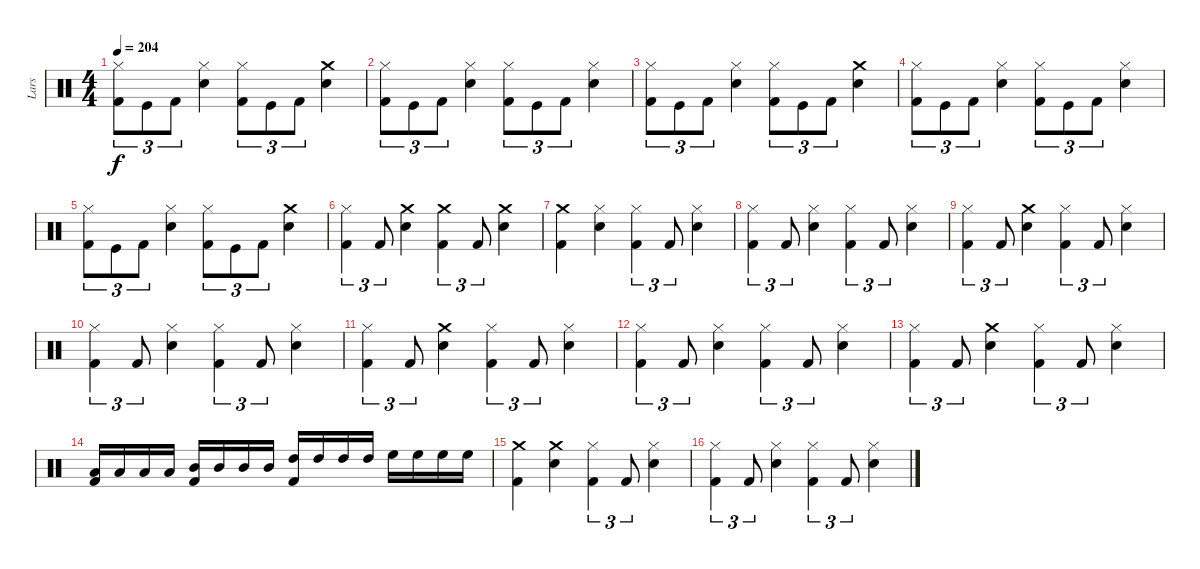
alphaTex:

\track ("Lars" "Lars") {instrument percussion}
\staff {score}
\articulation defaults
\ts (4 4)
\tempo 204
\clef neutral
\ks c
("Hi-Hat (closed)" "Kick (hit) 2").8{tu (3 2) dy f} "Kick (hit)".8{tu (3 2)} "Kick (hit) 2".8{tu (3 2)} ("Snare (hit) 2" "Hi-Hat (closed)").4 ("Hi-Hat (closed)" "Kick (hit) 2").8{tu (3 2)} "Kick (hit)".8{tu (3 2)} "Kick (hit) 2".8{tu (3 2)} ("Crash medium (hit)" "Snare (hit) 2").4 |
("Hi-Hat (closed)" "Kick (hit) 2").8{tu (3 2)} "Kick (hit)".8{tu (3 2)} "Kick (hit) 2".8{tu (3 2)} ("Snare (hit) 2" "Hi-Hat (closed)").4 ("Hi-Hat (closed)" "Kick (hit) 2").8{tu (3 2)} "Kick (hit)".8{tu (3 2)} "Kick (hit) 2".8{tu (3 2)} ("Hi-Hat (closed)" "Snare (hit) 2").4 |
("Hi-Hat (closed)" "Kick (hit) 2").8{tu (3 2)} "Kick (hit)".8{tu (3 2)} "Kick (hit) 2".8{tu (3 2)} ("Snare (hit) 2" "Hi-Hat (closed)").4 ("Hi-Hat (closed)" "Kick (hit) 2").8{tu (3 2)} "Kick (hit)".8{tu (3 2)} "Kick (hit) 2".8{tu (3 2)} ("Crash medium (hit)" "Snare (hit) 2").4 |
("Hi-Hat (closed)" "Kick (hit) 2").8{tu (3 2)} "Kick (hit)".8{tu (3 2)} "Kick (hit) 2".8{tu (3 2)} ("Snare (hit) 2" "Hi-Hat (closed)").4 ("Hi-Hat (closed)" "Kick (hit) 2").8{tu (3 2)} "Kick (hit)".8{tu (3 2)} "Kick (hit) 2".8{tu (3 2)} ("Hi-Hat (closed)" "Snare (hit) 2").4 |
("Hi-Hat (closed)" "Kick (hit) 2").8{tu (3 2)} "Kick (hit)".8{tu (3 2)} "Kick (hit) 2".8{tu (3 2)} ("Snare (hit) 2" "Hi-Hat (closed)").4 ("Hi-Hat (closed)" "Kick (hit) 2").8{tu (3 2)} "Kick (hit)".8{tu (3 2)} "Kick (hit) 2".8{tu (3 2)} ("Crash medium (hit)" "Snare (hit) 2").4 |
("Hi-Hat (closed)" "Kick (hit) 2").4{tu (3 2)} "Kick (hit) 2".8{tu (3 2)} ("Crash medium (hit)" "Snare (hit) 2").4 ("Crash medium (hit)" "Kick (hit) 2").4{tu (3 2)} "Kick (hit) 2".8{tu (3 2)} ("Crash medium (hit)" "Snare (hit) 2").4 |
("Kick (hit) 2" "Crash medium (hit)").4 ("Hi-Hat (closed)" "Snare (hit) 2").4 ("Hi-Hat (closed)" "Kick (hit) 2").4{tu (3 2)} "Kick (hit) 2".8{tu (3 2)} ("Snare (hit) 2" "Hi-Hat (closed)").4 |
("Kick (hit) 2" "Hi-Hat (closed)").4{tu (3 2)} "Kick (hit) 2".8{tu (3 2)} ("Snare (hit) 2" "Hi-Hat (closed)").4 ("Kick (hit) 2" "Hi-Hat (closed)").4{tu (3 2)} "Kick (hit) 2".8{tu (3 2)} ("Snare (hit) 2" "Hi-Hat (closed)").4 |
("Kick (hit) 2" "Hi-Hat (closed)").4{tu (3 2)} "Kick (hit) 2".8{tu (3 2)} ("Crash medium (hit)" "Snare (hit) 2").4 ("Kick (hit) 2" "Hi-Hat (closed)").4{tu (3 2)} "Kick (hit) 2".8{tu (3 2)} ("Snare (hit) 2" "Hi-Hat (closed)").4 |
("Kick (hit) 2" "Hi-Hat (closed)").4{tu (3 2)} "Kick (hit) 2".8{tu (3 2)} ("Snare (hit) 2" "Hi-Hat (closed)").4 ("Kick (hit) 2" "Hi-Hat (closed)").4{tu (3 2)} "Kick (hit) 2".8{tu (3 2)} ("Snare (hit) 2" "Hi-Hat (closed)").4 |
("Kick (hit) 2" "Hi-Hat (closed)").4{tu (3 2)} "Kick (hit) 2".8{tu (3 2)} ("Crash medium (hit)" "Snare (hit) 2").4 ("Kick (hit) 2" "Hi-Hat (closed)").4{tu (3 2)} "Kick (hit) 2".8{tu (3 2)} ("Snare (hit) 2" "Hi-Hat (closed)").4 |
("Kick (hit) 2" "Hi-Hat (closed)").4{tu (3 2)} "Kick (hit) 2".8{tu (3 2)} ("Snare (hit) 2" "Hi-Hat (closed)").4 ("Kick (hit) 2" "Hi-Hat (closed)").4{tu (3 2)} "Kick (hit) 2".8{tu (3 2)} ("Snare (hit) 2" "Hi-Hat (closed)").4 |
("Kick (hit) 2" "Hi-Hat (closed)").4{tu (3 2)} "Kick (hit) 2".8{tu (3 2)} ("Crash medium (hit)" "Snare (hit) 2").4 ("Kick (hit) 2" "Hi-Hat (closed)").4{tu (3 2)} "Kick (hit) 2".8{tu (3 2)} ("Snare (hit) 2" "Hi-Hat (closed)").4 |
("Low Tom (hit)" "Kick (hit) 2").16 "Low Tom (hit)".16 "Low Tom (hit)".16 "Low Tom (hit)".16 ("Mid Tom (hit)" "Kick (hit) 2").16 "Mid Tom (hit)".16 "Mid Tom (hit)".16 "Mid Tom (hit)".16 ("High Tom (hit)" "Kick (hit) 2").16 "High Tom (hit)".16 "High Tom (hit)".16 "High Tom (hit)".16 "High Floor Tom (hit)".16 "High Floor Tom (hit)".16 "High Floor Tom (hit)".16 "High Floor Tom (hit)".16 |
("Kick (hit) 2" "Crash medium (hit)").4 ("Snare (hit) 2" "Crash medium (hit)").4 ("Hi-Hat (closed)" "Kick (hit) 2").4{tu (3 2)} "Kick (hit) 2".8{tu (3 2)} ("Hi-Hat (closed)" "Snare (hit) 2").4 |
("Kick (hit) 2" "Hi-Hat (closed)").4{tu (3 2)} "Kick (hit) 2".8{tu (3 2)} ("Snare (hit) 2" "Hi-Hat (closed)").4 ("Kick (hit) 2" "Hi-Hat (closed)").4{tu (3 2)} "Kick (hit) 2".8{tu (3 2)} ("Snare (hit) 2" "Hi-Hat (closed)").4
